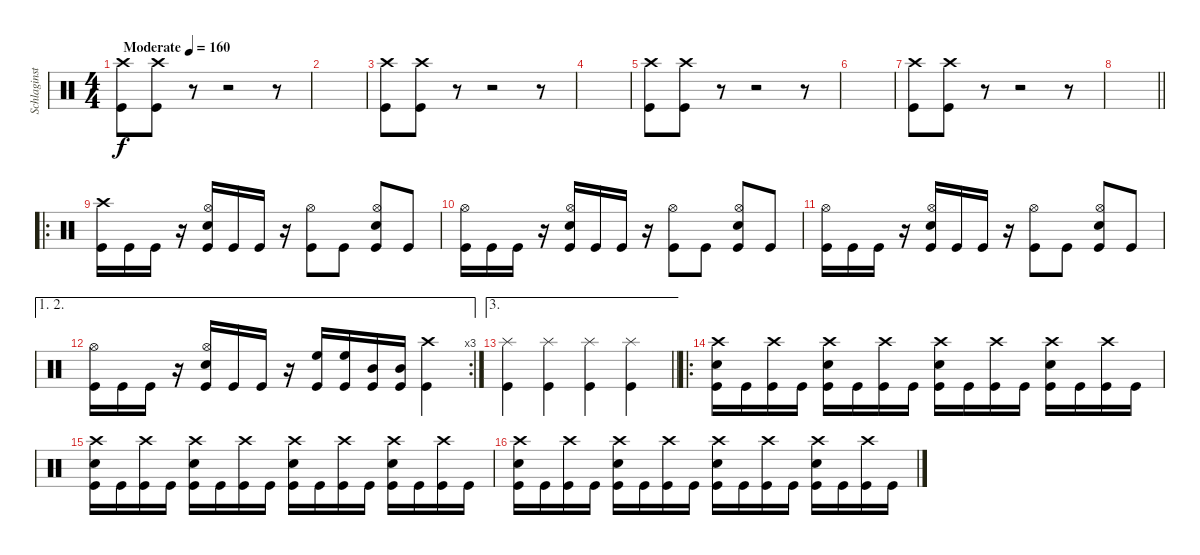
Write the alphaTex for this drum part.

\track ("Schlaginstrumente - Auswahl" "Schlaginst") {solo instrument percussion}
\staff {score}
\articulation defaults
\ts (4 4)
\tempo (160 "Moderate")
\clef neutral
\ks c
("Kick (hit)" "Crash high (hit)").8{dy f} ("Kick (hit)" "Crash high (hit)").8 r.8 r.2 r.8 |
|
("Kick (hit)" "Crash high (hit)").8 ("Kick (hit)" "Crash high (hit)").8 r.8 r.2 r.8 |
|
("Kick (hit)" "Crash high (hit)").8 ("Kick (hit)" "Crash high (hit)").8 r.8 r.2 r.8 |
|
("Kick (hit)" "Crash high (hit)").8 ("Kick (hit)" "Crash high (hit)").8 r.8 r.2 r.8 |
\barLineRight lightlight
|
\ro
("Kick (hit)" "Crash high (hit)").16 "Kick (hit)".16 "Kick (hit)".16 r.16 ("Kick (hit)" "Hi-Hat (open)" "Electric Snare (hit)").16 "Kick (hit)".16 "Kick (hit)".16 r.16 ("Kick (hit)" "Hi-Hat (open)").8 "Kick (hit)".8 ("Kick (hit)" "Hi-Hat (open)" "Electric Snare (hit)").8 "Kick (hit)".8 |
("Kick (hit)" "Hi-Hat (open)").16 "Kick (hit)".16 "Kick (hit)".16 r.16 ("Kick (hit)" "Hi-Hat (open)" "Electric Snare (hit)").16 "Kick (hit)".16 "Kick (hit)".16 r.16 ("Kick (hit)" "Hi-Hat (open)").8 "Kick (hit)".8 ("Kick (hit)" "Hi-Hat (open)" "Electric Snare (hit)").8 "Kick (hit)".8 |
("Kick (hit)" "Hi-Hat (open)").16 "Kick (hit)".16 "Kick (hit)".16 r.16 ("Kick (hit)" "Hi-Hat (open)" "Electric Snare (hit)").16 "Kick (hit)".16 "Kick (hit)".16 r.16 ("Kick (hit)" "Hi-Hat (open)").8 "Kick (hit)".8 ("Kick (hit)" "Hi-Hat (open)" "Electric Snare (hit)").8 "Kick (hit)".8 |
\ae (1 2)
\rc 3
("Kick (hit)" "Hi-Hat (open)").16 "Kick (hit)".16 "Kick (hit)".16 r.16 ("Kick (hit)" "Hi-Hat (open)" "Electric Snare (hit)").16 "Kick (hit)".16 "Kick (hit)".16 r.16 ("Kick (hit)" "High Floor Tom (hit)").16 ("Kick (hit)" "High Floor Tom (hit)").16 ("Kick (hit)" "Mid Tom (hit)").16 ("Kick (hit)" "Mid Tom (hit)").16 ("Kick (hit)" "Crash high (hit)").4 |
\ae 3
\barLineRight lightlight
("Kick (hit)" "Splash (hit)").4 ("Kick (hit)" "Splash (hit)").4 ("Kick (hit)" "Splash (hit)").4 ("Kick (hit)" "Splash (hit)").4 |
\ro
("Kick (hit)" "Crash high (hit)" "Electric Snare (hit)").16 "Kick (hit)".16 ("Kick (hit)" "Crash high (hit)").16 "Kick (hit)".16 ("Kick (hit)" "Crash high (hit)" "Electric Snare (hit)").16 "Kick (hit)".16 ("Kick (hit)" "Crash high (hit)").16 "Kick (hit)".16 ("Kick (hit)" "Crash high (hit)" "Electric Snare (hit)").16 "Kick (hit)".16 ("Kick (hit)" "Crash high (hit)").16 "Kick (hit)".16 ("Kick (hit)" "Crash high (hit)" "Electric Snare (hit)").16 "Kick (hit)".16 ("Kick (hit)" "Crash high (hit)").16 "Kick (hit)".16 |
("Kick (hit)" "Crash high (hit)" "Electric Snare (hit)").16 "Kick (hit)".16 ("Kick (hit)" "Crash high (hit)").16 "Kick (hit)".16 ("Kick (hit)" "Crash high (hit)" "Electric Snare (hit)").16 "Kick (hit)".16 ("Kick (hit)" "Crash high (hit)").16 "Kick (hit)".16 ("Kick (hit)" "Crash high (hit)" "Electric Snare (hit)").16 "Kick (hit)".16 ("Kick (hit)" "Crash high (hit)").16 "Kick (hit)".16 ("Kick (hit)" "Crash high (hit)" "Electric Snare (hit)").16 "Kick (hit)".16 ("Kick (hit)" "Crash high (hit)").16 "Kick (hit)".16 |
("Kick (hit)" "Crash high (hit)" "Electric Snare (hit)").16 "Kick (hit)".16 ("Kick (hit)" "Crash high (hit)").16 "Kick (hit)".16 ("Kick (hit)" "Crash high (hit)" "Electric Snare (hit)").16 "Kick (hit)".16 ("Kick (hit)" "Crash high (hit)").16 "Kick (hit)".16 ("Kick (hit)" "Crash high (hit)" "Electric Snare (hit)").16 "Kick (hit)".16 ("Kick (hit)" "Crash high (hit)").16 "Kick (hit)".16 ("Kick (hit)" "Crash high (hit)" "Electric Snare (hit)").16 "Kick (hit)".16 ("Kick (hit)" "Crash high (hit)").16 "Kick (hit)".16
